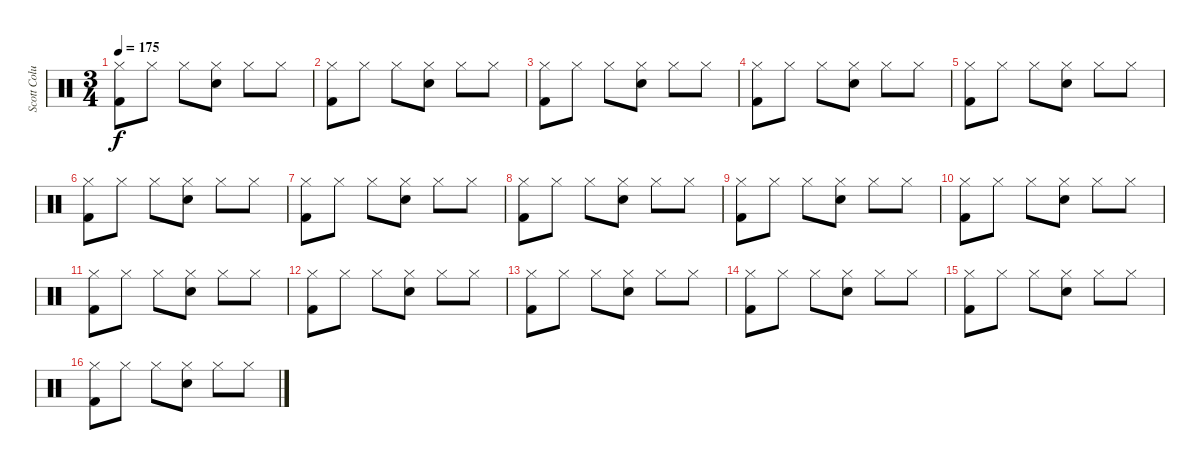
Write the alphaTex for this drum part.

\track ("Scott Columbus" "Scott Colu") {instrument percussion}
\staff {score}
\articulation defaults
\ts (3 4)
\tempo 175
\clef neutral
\ks c
("Kick (hit) 2" "Hi-Hat (closed)").8{dy f} "Hi-Hat (closed)".8 "Hi-Hat (closed)".8 ("Snare (hit) 2" "Hi-Hat (closed)").8 "Hi-Hat (closed)".8 "Hi-Hat (closed)".8 |
("Kick (hit) 2" "Hi-Hat (closed)").8 "Hi-Hat (closed)".8 "Hi-Hat (closed)".8 ("Snare (hit) 2" "Hi-Hat (closed)").8 "Hi-Hat (closed)".8 "Hi-Hat (closed)".8 |
("Kick (hit) 2" "Hi-Hat (closed)").8 "Hi-Hat (closed)".8 "Hi-Hat (closed)".8 ("Snare (hit) 2" "Hi-Hat (closed)").8 "Hi-Hat (closed)".8 "Hi-Hat (closed)".8 |
("Kick (hit) 2" "Hi-Hat (closed)").8 "Hi-Hat (closed)".8 "Hi-Hat (closed)".8 ("Snare (hit) 2" "Hi-Hat (closed)").8 "Hi-Hat (closed)".8 "Hi-Hat (closed)".8 |
("Kick (hit) 2" "Hi-Hat (closed)").8 "Hi-Hat (closed)".8 "Hi-Hat (closed)".8 ("Snare (hit) 2" "Hi-Hat (closed)").8 "Hi-Hat (closed)".8 "Hi-Hat (closed)".8 |
("Kick (hit) 2" "Hi-Hat (closed)").8 "Hi-Hat (closed)".8 "Hi-Hat (closed)".8 ("Snare (hit) 2" "Hi-Hat (closed)").8 "Hi-Hat (closed)".8 "Hi-Hat (closed)".8 |
("Kick (hit) 2" "Hi-Hat (closed)").8 "Hi-Hat (closed)".8 "Hi-Hat (closed)".8 ("Snare (hit) 2" "Hi-Hat (closed)").8 "Hi-Hat (closed)".8 "Hi-Hat (closed)".8 |
("Kick (hit) 2" "Hi-Hat (closed)").8 "Hi-Hat (closed)".8 "Hi-Hat (closed)".8 ("Snare (hit) 2" "Hi-Hat (closed)").8 "Hi-Hat (closed)".8 "Hi-Hat (closed)".8 |
("Kick (hit) 2" "Hi-Hat (closed)").8 "Hi-Hat (closed)".8 "Hi-Hat (closed)".8 ("Snare (hit) 2" "Hi-Hat (closed)").8 "Hi-Hat (closed)".8 "Hi-Hat (closed)".8 |
("Kick (hit) 2" "Hi-Hat (closed)").8 "Hi-Hat (closed)".8 "Hi-Hat (closed)".8 ("Snare (hit) 2" "Hi-Hat (closed)").8 "Hi-Hat (closed)".8 "Hi-Hat (closed)".8 |
("Kick (hit) 2" "Hi-Hat (closed)").8 "Hi-Hat (closed)".8 "Hi-Hat (closed)".8 ("Snare (hit) 2" "Hi-Hat (closed)").8 "Hi-Hat (closed)".8 "Hi-Hat (closed)".8 |
("Kick (hit) 2" "Hi-Hat (closed)").8 "Hi-Hat (closed)".8 "Hi-Hat (closed)".8 ("Snare (hit) 2" "Hi-Hat (closed)").8 "Hi-Hat (closed)".8 "Hi-Hat (closed)".8 |
("Kick (hit) 2" "Hi-Hat (closed)").8 "Hi-Hat (closed)".8 "Hi-Hat (closed)".8 ("Snare (hit) 2" "Hi-Hat (closed)").8 "Hi-Hat (closed)".8 "Hi-Hat (closed)".8 |
("Kick (hit) 2" "Hi-Hat (closed)").8 "Hi-Hat (closed)".8 "Hi-Hat (closed)".8 ("Snare (hit) 2" "Hi-Hat (closed)").8 "Hi-Hat (closed)".8 "Hi-Hat (closed)".8 |
("Kick (hit) 2" "Hi-Hat (closed)").8 "Hi-Hat (closed)".8 "Hi-Hat (closed)".8 ("Snare (hit) 2" "Hi-Hat (closed)").8 "Hi-Hat (closed)".8 "Hi-Hat (closed)".8 |
("Kick (hit) 2" "Hi-Hat (closed)").8 "Hi-Hat (closed)".8 "Hi-Hat (closed)".8 ("Snare (hit) 2" "Hi-Hat (closed)").8 "Hi-Hat (closed)".8 "Hi-Hat (closed)".8
